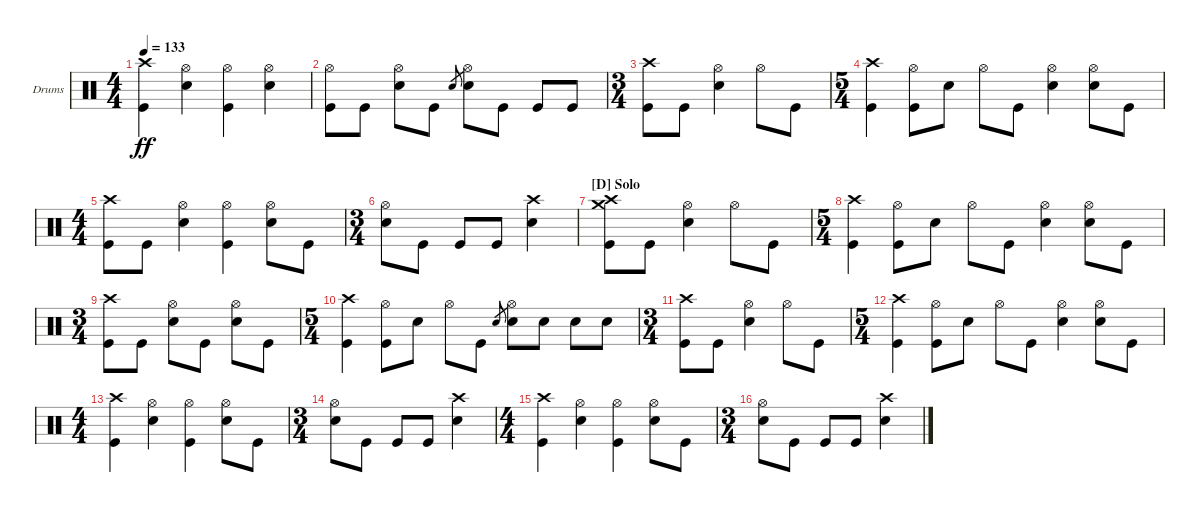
\bracketExtendMode groupsimilarinstruments
\firstSystemTrackNameOrientation horizontal
\otherSystemsTrackNameOrientation horizontal
\track ("Drumkit" "Drums") {instrument percussion}
\staff {score}
\articulation defaults
\ts (4 4)
\tempo 133
\clef neutral
\ks c
("Crash high (hit)" "Kick (hit)").4{dy ff} ("Hi-Hat (open)" "Snare (hit) 2").4 ("Hi-Hat (open)" "Kick (hit)").4 ("Hi-Hat (open)" "Snare (hit) 2").4 |
("Hi-Hat (open)" "Kick (hit)").8 "Kick (hit)".8 ("Hi-Hat (open)" "Snare (hit) 2").8 "Kick (hit)".8 "Snare (hit) 2".8{gr} ("Hi-Hat (open)" "Snare (hit) 2").8 "Kick (hit)".8 "Kick (hit)".8 "Kick (hit)".8 |
\ts (3 4)
("Crash high (hit)" "Kick (hit)").8 "Kick (hit)".8 ("Hi-Hat (open)" "Snare (hit) 2").4 "Hi-Hat (open)".8 "Kick (hit)".8 |
\ts (5 4)
("Crash high (hit)" "Kick (hit)").4 ("Hi-Hat (open)" "Kick (hit)").8 "Snare (hit) 2".8 "Hi-Hat (open)".8 "Kick (hit)".8 ("Hi-Hat (open)" "Snare (hit) 2").4 ("Hi-Hat (open)" "Snare (hit) 2").8 "Kick (hit)".8 |
\ts (4 4)
("Crash high (hit)" "Kick (hit)").8 "Kick (hit)".8 ("Hi-Hat (open)" "Snare (hit) 2").4 ("Hi-Hat (open)" "Kick (hit)").4 ("Hi-Hat (open)" "Snare (hit) 2").8 "Kick (hit)".8 |
\ts (3 4)
("Hi-Hat (open)" "Snare (hit) 2").8 "Kick (hit)".8 "Kick (hit)".8 "Kick (hit)".8 ("Crash high (hit)" "Snare (hit) 2").4 |
\section ("D" "Solo")
("Kick (hit)" "Crash medium (hit)" "Crash high (hit)").8 "Kick (hit)".8 ("Hi-Hat (open)" "Snare (hit) 2").4 "Hi-Hat (open)".8 "Kick (hit)".8 |
\ts (5 4)
("Crash high (hit)" "Kick (hit)").4 ("Hi-Hat (open)" "Kick (hit)").8 "Snare (hit) 2".8 "Hi-Hat (open)".8 "Kick (hit)".8 ("Hi-Hat (open)" "Snare (hit) 2").4 ("Hi-Hat (open)" "Snare (hit) 2").8 "Kick (hit)".8 |
\ts (3 4)
("Crash high (hit)" "Kick (hit)").8 "Kick (hit)".8 ("Hi-Hat (open)" "Snare (hit) 2").8 "Kick (hit)".8 ("Hi-Hat (open)" "Snare (hit) 2").8 "Kick (hit)".8 |
\ts (5 4)
("Kick (hit)" "Crash high (hit)").4 ("Hi-Hat (open)" "Kick (hit)").8 "Snare (hit) 2".8 "Hi-Hat (open)".8 "Kick (hit)".8 "Snare (hit) 2".8{gr} ("Hi-Hat (open)" "Snare (hit) 2").8 "Snare (hit) 2".8 "Snare (hit) 2".8 "Snare (hit) 2".8 |
\ts (3 4)
("Crash high (hit)" "Kick (hit)").8 "Kick (hit)".8 ("Hi-Hat (open)" "Snare (hit) 2").4 "Hi-Hat (open)".8 "Kick (hit)".8 |
\ts (5 4)
("Crash high (hit)" "Kick (hit)").4 ("Hi-Hat (open)" "Kick (hit)").8 "Snare (hit) 2".8 "Hi-Hat (open)".8 "Kick (hit)".8 ("Hi-Hat (open)" "Snare (hit) 2").4 ("Hi-Hat (open)" "Snare (hit) 2").8 "Kick (hit)".8 |
\ts (4 4)
("Crash high (hit)" "Kick (hit)").4 ("Hi-Hat (open)" "Snare (hit) 2").4 ("Hi-Hat (open)" "Kick (hit)").4 ("Hi-Hat (open)" "Snare (hit) 2").8 "Kick (hit)".8 |
\ts (3 4)
("Hi-Hat (open)" "Snare (hit) 2").8 "Kick (hit)".8 "Kick (hit)".8 "Kick (hit)".8 ("Crash high (hit)" "Snare (hit) 2").4 |
\ts (4 4)
("Crash high (hit)" "Kick (hit)").4 ("Hi-Hat (open)" "Snare (hit) 2").4 ("Hi-Hat (open)" "Kick (hit)").4 ("Hi-Hat (open)" "Snare (hit) 2").8 "Kick (hit)".8 |
\ts (3 4)
("Hi-Hat (open)" "Snare (hit) 2").8 "Kick (hit)".8 "Kick (hit)".8 "Kick (hit)".8 ("Crash high (hit)" "Snare (hit) 2").4
